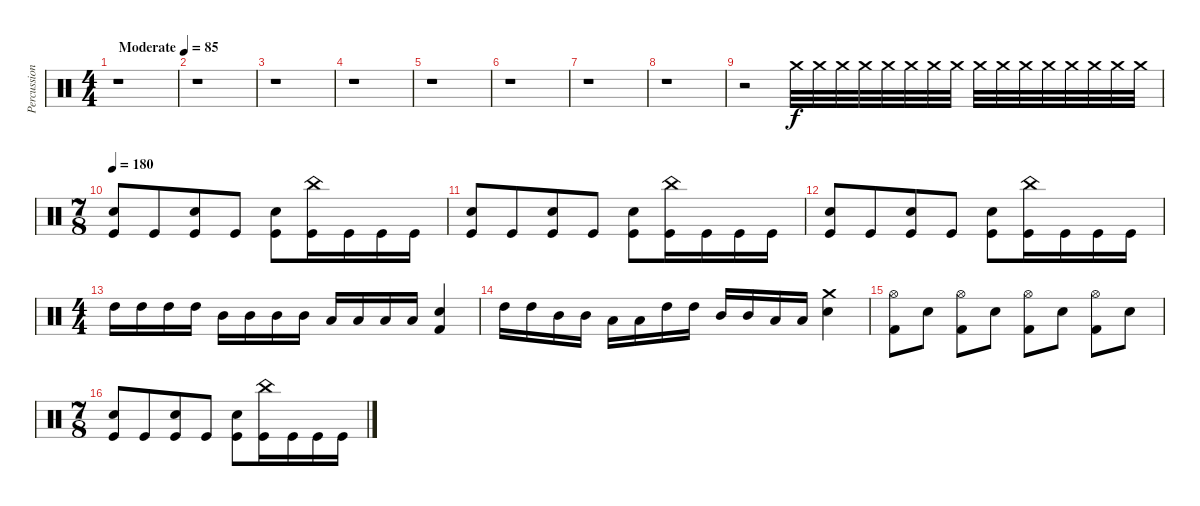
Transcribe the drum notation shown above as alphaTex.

\track ("Percussion" "Percussion") {instrument percussion}
\staff {score}
\articulation defaults
\ts (4 4)
\tempo (85 "Moderate")
\clef neutral
\ks c
r.1{dy f} |
r.1 |
r.1 |
r.1 |
r.1 |
r.1 |
r.1 |
r.1 |
r.2 "Crash medium (hit)".32{volume 1} "Crash medium (hit)".32{volume 13} "Crash medium (hit)".32 "Crash medium (hit)".32 "Crash medium (hit)".32 "Crash medium (hit)".32 "Crash medium (hit)".32 "Crash medium (hit)".32 "Crash medium (hit)".32 "Crash medium (hit)".32 "Crash medium (hit)".32 "Crash medium (hit)".32 "Crash medium (hit)".32 "Crash medium (hit)".32 "Crash medium (hit)".32 "Crash medium (hit)".32 |
\ts (7 8)
\tempo 180
("Snare (hit) 2" "Kick (hit)").8 "Kick (hit)".8 ("Snare (hit) 2" "Kick (hit)").8 "Kick (hit)".8 ("Snare (hit) 2" "Kick (hit)").8 ("China (hit)" "Kick (hit)").16 "Kick (hit)".16 "Kick (hit)".16 "Kick (hit)".16 |
("Snare (hit) 2" "Kick (hit)").8 "Kick (hit)".8 ("Snare (hit) 2" "Kick (hit)").8 "Kick (hit)".8 ("Snare (hit) 2" "Kick (hit)").8 ("China (hit)" "Kick (hit)").16 "Kick (hit)".16 "Kick (hit)".16 "Kick (hit)".16 |
("Snare (hit) 2" "Kick (hit)").8 "Kick (hit)".8 ("Snare (hit) 2" "Kick (hit)").8 "Kick (hit)".8 ("Snare (hit) 2" "Kick (hit)").8 ("China (hit)" "Kick (hit)").16 "Kick (hit)".16 "Kick (hit)".16 "Kick (hit)".16 |
\ts (4 4)
"High Tom (hit)".16 "High Tom (hit)".16 "High Tom (hit)".16 "High Tom (hit)".16 "Mid Tom (hit)".16 "Mid Tom (hit)".16 "Mid Tom (hit)".16 "Mid Tom (hit)".16 "Low Tom (hit)".16 "Low Tom (hit)".16 "Low Tom (hit)".16 "Low Tom (hit)".16 ("Snare (hit) 2" "Kick (hit) 2").4{bd 240} |
"High Tom (hit)".16 "High Tom (hit)".16 "Mid Tom (hit)".16 "Mid Tom (hit)".16 "Low Tom (hit)".16 "Low Tom (hit)".16 "High Tom (hit)".16 "High Tom (hit)".16 "Mid Tom (hit)".16 "Mid Tom (hit)".16 "Low Tom (hit)".16 "Low Tom (hit)".16 ("Crash medium (hit)" "Snare (hit) 2").4 |
("Hi-Hat (open)" "Kick (hit) 2").8 "Snare (hit) 2".8 ("Hi-Hat (open)" "Kick (hit) 2").8 "Snare (hit) 2".8 ("Hi-Hat (open)" "Kick (hit) 2").8 "Snare (hit) 2".8 ("Hi-Hat (open)" "Kick (hit) 2").8 "Snare (hit) 2".8 |
\ts (7 8)
("Snare (hit) 2" "Kick (hit)").8 "Kick (hit)".8 ("Snare (hit) 2" "Kick (hit)").8 "Kick (hit)".8 ("Snare (hit) 2" "Kick (hit)").8 ("China (hit)" "Kick (hit)").16 "Kick (hit)".16 "Kick (hit)".16 "Kick (hit)".16
